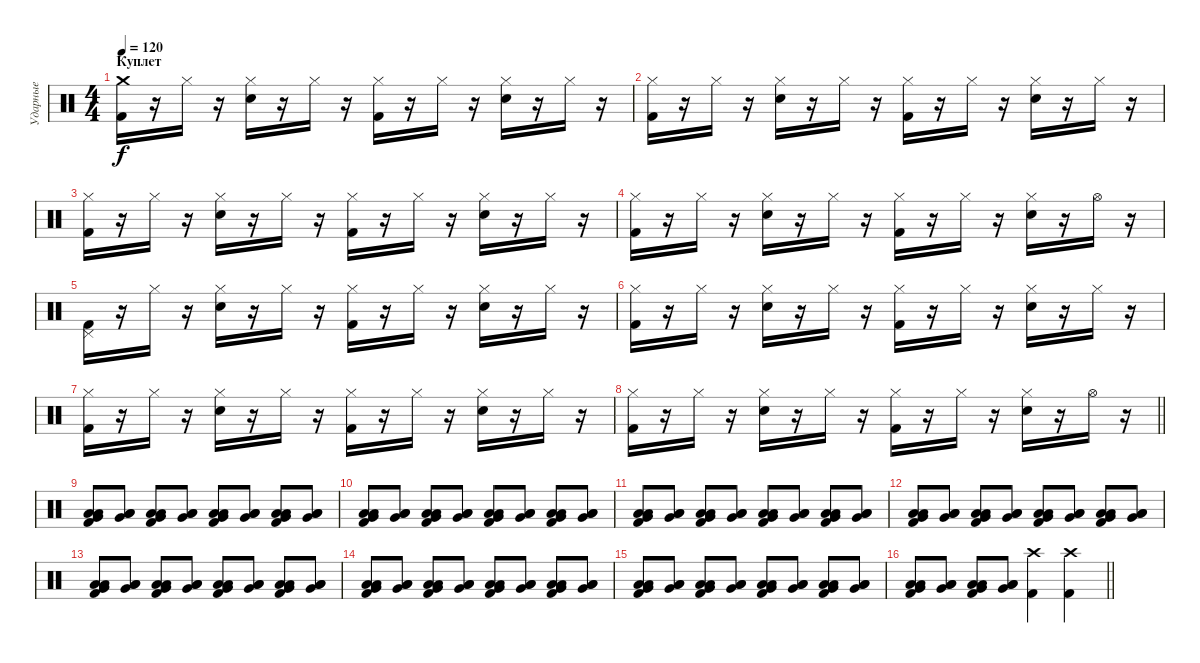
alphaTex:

\track ("Ударные" "Ударные") {instrument percussion}
\staff {score}
\articulation defaults
\ts (4 4)
\section ("" "Куплет")
\tempo 120
\clef neutral
\ks c
("Crash medium (hit)" "Kick (hit) 2").16{dy f volume 11} r.16 "Hi-Hat (closed)".16 r.16 ("Hi-Hat (closed)" "Electric Snare (hit)").16 r.16 "Hi-Hat (closed)".16 r.16 ("Hi-Hat (closed)" "Kick (hit) 2").16 r.16 "Hi-Hat (closed)".16 r.16 ("Hi-Hat (closed)" "Electric Snare (hit)").16 r.16 "Hi-Hat (closed)".16 r.16 |
("Hi-Hat (closed)" "Kick (hit) 2").16 r.16 "Hi-Hat (closed)".16 r.16 ("Hi-Hat (closed)" "Electric Snare (hit)").16 r.16 "Hi-Hat (closed)".16 r.16 ("Hi-Hat (closed)" "Kick (hit) 2").16 r.16 "Hi-Hat (closed)".16 r.16 ("Hi-Hat (closed)" "Electric Snare (hit)").16 r.16 "Hi-Hat (closed)".16 r.16 |
("Hi-Hat (closed)" "Kick (hit) 2").16 r.16 "Hi-Hat (closed)".16 r.16 ("Hi-Hat (closed)" "Electric Snare (hit)").16 r.16 "Hi-Hat (closed)".16 r.16 ("Hi-Hat (closed)" "Kick (hit) 2").16 r.16 "Hi-Hat (closed)".16 r.16 ("Hi-Hat (closed)" "Electric Snare (hit)").16 r.16 "Hi-Hat (closed)".16 r.16 |
("Hi-Hat (closed)" "Kick (hit) 2").16 r.16 "Hi-Hat (closed)".16 r.16 ("Hi-Hat (closed)" "Electric Snare (hit)").16 r.16 "Hi-Hat (closed)".16 r.16 ("Hi-Hat (closed)" "Kick (hit) 2").16 r.16 "Hi-Hat (closed)".16 r.16 ("Hi-Hat (closed)" "Electric Snare (hit)").16 r.16 "Hi-Hat (open)".16 r.16 |
("Pedal Hi-Hat (hit)" "Kick (hit) 2").16 r.16 "Hi-Hat (closed)".16 r.16 ("Hi-Hat (closed)" "Electric Snare (hit)").16 r.16 "Hi-Hat (closed)".16 r.16 ("Hi-Hat (closed)" "Kick (hit) 2").16 r.16 "Hi-Hat (closed)".16 r.16 ("Hi-Hat (closed)" "Electric Snare (hit)").16 r.16 "Hi-Hat (closed)".16 r.16 |
("Hi-Hat (closed)" "Kick (hit) 2").16 r.16 "Hi-Hat (closed)".16 r.16 ("Hi-Hat (closed)" "Electric Snare (hit)").16 r.16 "Hi-Hat (closed)".16 r.16 ("Hi-Hat (closed)" "Kick (hit) 2").16 r.16 "Hi-Hat (closed)".16 r.16 ("Hi-Hat (closed)" "Electric Snare (hit)").16 r.16 "Hi-Hat (closed)".16 r.16 |
("Hi-Hat (closed)" "Kick (hit) 2").16 r.16 "Hi-Hat (closed)".16 r.16 ("Hi-Hat (closed)" "Electric Snare (hit)").16 r.16 "Hi-Hat (closed)".16 r.16 ("Hi-Hat (closed)" "Kick (hit) 2").16 r.16 "Hi-Hat (closed)".16 r.16 ("Hi-Hat (closed)" "Electric Snare (hit)").16 r.16 "Hi-Hat (closed)".16 r.16 |
\barLineRight lightlight
("Hi-Hat (closed)" "Kick (hit) 2").16 r.16 "Hi-Hat (closed)".16 r.16 ("Hi-Hat (closed)" "Electric Snare (hit)").16 r.16 "Hi-Hat (closed)".16 r.16 ("Hi-Hat (closed)" "Kick (hit) 2").16 r.16 "Hi-Hat (closed)".16 r.16 ("Hi-Hat (closed)" "Electric Snare (hit)").16 r.16 "Hi-Hat (open)".16 r.16 |
\section ("" "")
("Low Tom (hit)" "Low Floor Tom (hit)" "Very Low Tom (hit)" "Kick (hit) 2").8{volume 9} ("Low Tom (hit)" "Low Floor Tom (hit)" "Very Low Tom (hit)").8 ("Low Tom (hit)" "Low Floor Tom (hit)" "Very Low Tom (hit)" "Kick (hit) 2").8 ("Low Tom (hit)" "Low Floor Tom (hit)" "Very Low Tom (hit)").8 ("Low Tom (hit)" "Low Floor Tom (hit)" "Very Low Tom (hit)" "Kick (hit) 2").8 ("Low Tom (hit)" "Low Floor Tom (hit)" "Very Low Tom (hit)").8 ("Low Tom (hit)" "Low Floor Tom (hit)" "Very Low Tom (hit)" "Kick (hit) 2").8 ("Low Tom (hit)" "Low Floor Tom (hit)" "Very Low Tom (hit)").8 |
("Low Tom (hit)" "Low Floor Tom (hit)" "Very Low Tom (hit)" "Kick (hit) 2").8 ("Low Tom (hit)" "Low Floor Tom (hit)" "Very Low Tom (hit)").8 ("Low Tom (hit)" "Low Floor Tom (hit)" "Very Low Tom (hit)" "Kick (hit) 2").8 ("Low Tom (hit)" "Low Floor Tom (hit)" "Very Low Tom (hit)").8 ("Low Tom (hit)" "Low Floor Tom (hit)" "Very Low Tom (hit)" "Kick (hit) 2").8 ("Low Tom (hit)" "Low Floor Tom (hit)" "Very Low Tom (hit)").8 ("Low Tom (hit)" "Low Floor Tom (hit)" "Very Low Tom (hit)" "Kick (hit) 2").8 ("Low Tom (hit)" "Low Floor Tom (hit)" "Very Low Tom (hit)").8 |
("Low Tom (hit)" "Low Floor Tom (hit)" "Very Low Tom (hit)" "Kick (hit) 2").8 ("Low Tom (hit)" "Low Floor Tom (hit)" "Very Low Tom (hit)").8 ("Low Tom (hit)" "Low Floor Tom (hit)" "Very Low Tom (hit)" "Kick (hit) 2").8 ("Low Tom (hit)" "Low Floor Tom (hit)" "Very Low Tom (hit)").8 ("Low Tom (hit)" "Low Floor Tom (hit)" "Very Low Tom (hit)" "Kick (hit) 2").8 ("Low Tom (hit)" "Low Floor Tom (hit)" "Very Low Tom (hit)").8 ("Low Tom (hit)" "Low Floor Tom (hit)" "Very Low Tom (hit)" "Kick (hit) 2").8 ("Low Tom (hit)" "Low Floor Tom (hit)" "Very Low Tom (hit)").8 |
("Low Tom (hit)" "Low Floor Tom (hit)" "Very Low Tom (hit)" "Kick (hit) 2").8 ("Low Tom (hit)" "Low Floor Tom (hit)" "Very Low Tom (hit)").8 ("Low Tom (hit)" "Low Floor Tom (hit)" "Very Low Tom (hit)" "Kick (hit) 2").8 ("Low Tom (hit)" "Low Floor Tom (hit)" "Very Low Tom (hit)").8 ("Low Tom (hit)" "Low Floor Tom (hit)" "Very Low Tom (hit)" "Kick (hit) 2").8 ("Low Tom (hit)" "Low Floor Tom (hit)" "Very Low Tom (hit)").8 ("Low Tom (hit)" "Low Floor Tom (hit)" "Very Low Tom (hit)" "Kick (hit) 2").8 ("Low Tom (hit)" "Low Floor Tom (hit)" "Very Low Tom (hit)").8 |
("Low Tom (hit)" "Low Floor Tom (hit)" "Very Low Tom (hit)" "Kick (hit) 2").8 ("Low Tom (hit)" "Low Floor Tom (hit)" "Very Low Tom (hit)").8 ("Low Tom (hit)" "Low Floor Tom (hit)" "Very Low Tom (hit)" "Kick (hit) 2").8 ("Low Tom (hit)" "Low Floor Tom (hit)" "Very Low Tom (hit)").8 ("Low Tom (hit)" "Low Floor Tom (hit)" "Very Low Tom (hit)" "Kick (hit) 2").8 ("Low Tom (hit)" "Low Floor Tom (hit)" "Very Low Tom (hit)").8 ("Low Tom (hit)" "Low Floor Tom (hit)" "Very Low Tom (hit)" "Kick (hit) 2").8 ("Low Tom (hit)" "Low Floor Tom (hit)" "Very Low Tom (hit)").8 |
("Low Tom (hit)" "Low Floor Tom (hit)" "Very Low Tom (hit)" "Kick (hit) 2").8 ("Low Tom (hit)" "Low Floor Tom (hit)" "Very Low Tom (hit)").8 ("Low Tom (hit)" "Low Floor Tom (hit)" "Very Low Tom (hit)" "Kick (hit) 2").8 ("Low Tom (hit)" "Low Floor Tom (hit)" "Very Low Tom (hit)").8 ("Low Tom (hit)" "Low Floor Tom (hit)" "Very Low Tom (hit)" "Kick (hit) 2").8 ("Low Tom (hit)" "Low Floor Tom (hit)" "Very Low Tom (hit)").8 ("Low Tom (hit)" "Low Floor Tom (hit)" "Very Low Tom (hit)" "Kick (hit) 2").8 ("Low Tom (hit)" "Low Floor Tom (hit)" "Very Low Tom (hit)").8 |
("Low Tom (hit)" "Low Floor Tom (hit)" "Very Low Tom (hit)" "Kick (hit) 2").8 ("Low Tom (hit)" "Low Floor Tom (hit)" "Very Low Tom (hit)").8 ("Low Tom (hit)" "Low Floor Tom (hit)" "Very Low Tom (hit)" "Kick (hit) 2").8 ("Low Tom (hit)" "Low Floor Tom (hit)" "Very Low Tom (hit)").8 ("Low Tom (hit)" "Low Floor Tom (hit)" "Very Low Tom (hit)" "Kick (hit) 2").8 ("Low Tom (hit)" "Low Floor Tom (hit)" "Very Low Tom (hit)").8 ("Low Tom (hit)" "Low Floor Tom (hit)" "Very Low Tom (hit)" "Kick (hit) 2").8 ("Low Tom (hit)" "Low Floor Tom (hit)" "Very Low Tom (hit)").8 |
\barLineRight lightlight
("Low Tom (hit)" "Low Floor Tom (hit)" "Very Low Tom (hit)" "Kick (hit) 2").8 ("Low Tom (hit)" "Low Floor Tom (hit)" "Very Low Tom (hit)").8 ("Low Tom (hit)" "Low Floor Tom (hit)" "Very Low Tom (hit)" "Kick (hit) 2").8 ("Low Tom (hit)" "Low Floor Tom (hit)" "Very Low Tom (hit)").8 ("Crash high (hit)" "Kick (hit) 2").4{volume 13} ("Crash high (hit)" "Kick (hit) 2").4
